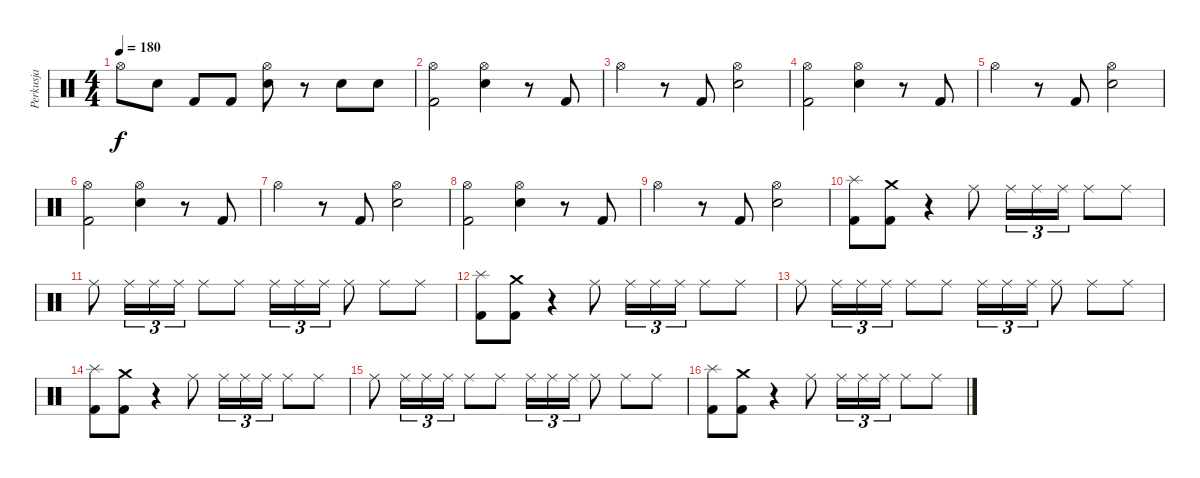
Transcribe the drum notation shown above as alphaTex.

\track ("Perkusja" "Perkusja") {instrument percussion}
\staff {score}
\articulation defaults
\ts (4 4)
\tempo 180
\clef neutral
\ks c "Hi-Hat (open)".8{dy f} "Electric Snare (hit)".8 "Kick (hit) 2".8 "Kick (hit) 2".8
("Hi-Hat (open)" "Electric Snare (hit)").8 r.8 "Electric Snare (hit)".8 "Electric Snare (hit)".8 |
("Hi-Hat (open)" "Kick (hit) 2").2 ("Hi-Hat (open)" "Electric Snare (hit)").4 r.8 "Kick (hit) 2".8 |
"Hi-Hat (open)".4 r.8 "Kick (hit) 2".8 ("Hi-Hat (open)" "Electric Snare (hit)").2 |
("Hi-Hat (open)" "Kick (hit) 2").2 ("Hi-Hat (open)" "Electric Snare (hit)").4 r.8 "Kick (hit) 2".8 |
"Hi-Hat (open)".4 r.8 "Kick (hit) 2".8 ("Hi-Hat (open)" "Electric Snare (hit)").2 |
("Hi-Hat (open)" "Kick (hit) 2").2 ("Hi-Hat (open)" "Electric Snare (hit)").4 r.8 "Kick (hit) 2".8 |
"Hi-Hat (open)".4 r.8 "Kick (hit) 2".8 ("Hi-Hat (open)" "Electric Snare (hit)").2 |
("Hi-Hat (open)" "Kick (hit) 2").2 ("Hi-Hat (open)" "Electric Snare (hit)").4 r.8 "Kick (hit) 2".8 |
"Hi-Hat (open)".4 r.8 "Kick (hit) 2".8 ("Hi-Hat (open)" "Electric Snare (hit)").2 |
("Splash (hit)" "Kick (hit) 2").8 ("Crash medium (hit)" "Kick (hit) 2").8 r.4 "Ride (middle)".8 "Ride (middle)".16{tu (3 2)} "Ride (middle)".16{tu (3 2)} "Ride (middle)".16{tu (3 2)} "Ride (middle)".8 "Ride (middle)".8 |
"Ride (middle)".8 "Ride (middle)".16{tu (3 2)} "Ride (middle)".16{tu (3 2)} "Ride (middle)".16{tu (3 2)} "Ride (middle)".8 "Ride (middle)".8 "Ride (middle)".16{tu (3 2)} "Ride (middle)".16{tu (3 2)} "Ride (middle)".16{tu (3 2)} "Ride (middle)".8 "Ride (middle)".8 "Ride (middle)".8 |
("Splash (hit)" "Kick (hit) 2").8 ("Crash medium (hit)" "Kick (hit) 2").8 r.4 "Ride (middle)".8 "Ride (middle)".16{tu (3 2)} "Ride (middle)".16{tu (3 2)} "Ride (middle)".16{tu (3 2)} "Ride (middle)".8 "Ride (middle)".8 |
"Ride (middle)".8 "Ride (middle)".16{tu (3 2)} "Ride (middle)".16{tu (3 2)} "Ride (middle)".16{tu (3 2)} "Ride (middle)".8 "Ride (middle)".8 "Ride (middle)".16{tu (3 2)} "Ride (middle)".16{tu (3 2)} "Ride (middle)".16{tu (3 2)} "Ride (middle)".8 "Ride (middle)".8 "Ride (middle)".8 |
("Splash (hit)" "Kick (hit) 2").8 ("Crash medium (hit)" "Kick (hit) 2").8 r.4 "Ride (middle)".8 "Ride (middle)".16{tu (3 2)} "Ride (middle)".16{tu (3 2)} "Ride (middle)".16{tu (3 2)} "Ride (middle)".8 "Ride (middle)".8 |
"Ride (middle)".8 "Ride (middle)".16{tu (3 2)} "Ride (middle)".16{tu (3 2)} "Ride (middle)".16{tu (3 2)} "Ride (middle)".8 "Ride (middle)".8 "Ride (middle)".16{tu (3 2)} "Ride (middle)".16{tu (3 2)} "Ride (middle)".16{tu (3 2)} "Ride (middle)".8 "Ride (middle)".8 "Ride (middle)".8 |
("Splash (hit)" "Kick (hit) 2").8 ("Crash medium (hit)" "Kick (hit) 2").8 r.4 "Ride (middle)".8 "Ride (middle)".16{tu (3 2)} "Ride (middle)".16{tu (3 2)} "Ride (middle)".16{tu (3 2)} "Ride (middle)".8 "Ride (middle)".8
